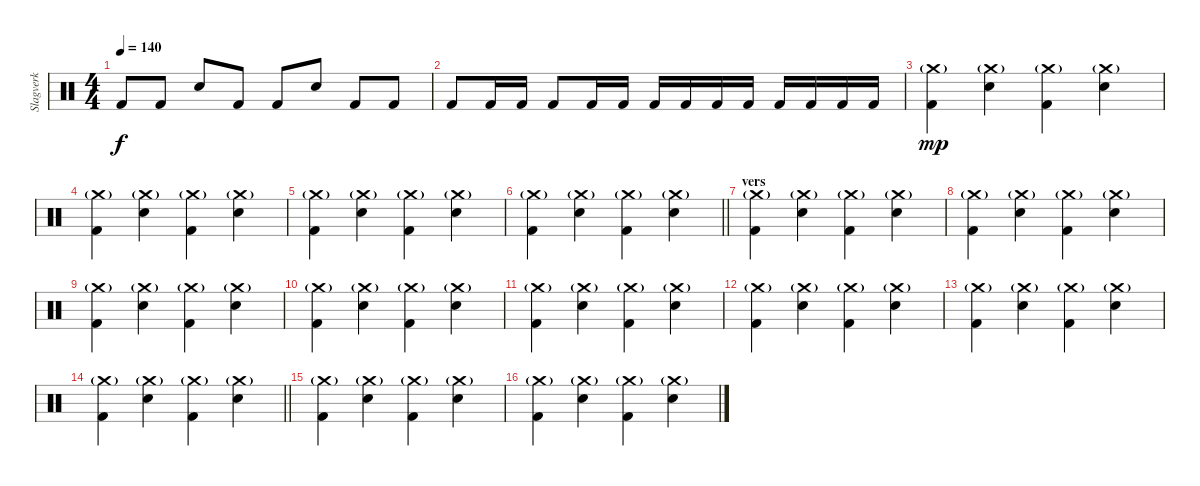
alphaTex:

\track ("Slagverk" "Slagverk") {instrument percussion}
\staff {score}
\articulation defaults
\ts (4 4)
\tempo 140
\clef neutral
\ks c "Kick (hit) 2".8{dy f} "Kick (hit) 2".8 "Snare (hit) 2".8 "Kick (hit) 2".8 "Kick (hit) 2".8 "Snare (hit) 2".8 "Kick (hit) 2".8 "Kick (hit) 2".8
|
"Kick (hit) 2".8 "Kick (hit) 2".16 "Kick (hit) 2".16 "Kick (hit) 2".8 "Kick (hit) 2".16 "Kick (hit) 2".16 "Kick (hit) 2".16 "Kick (hit) 2".16 "Kick (hit) 2".16 "Kick (hit) 2".16 "Kick (hit) 2".16 "Kick (hit) 2".16 "Kick (hit) 2".16 "Kick (hit) 2".16 |
("Kick (hit) 2" "Crash medium (hit)"{g}).4{dy mp} ("Snare (hit) 2" "Crash medium (hit)"{g}).4 ("Kick (hit) 2" "Crash medium (hit)"{g}).4 ("Snare (hit) 2" "Crash medium (hit)"{g}).4 |
("Kick (hit) 2" "Crash medium (hit)"{g}).4 ("Snare (hit) 2" "Crash medium (hit)"{g}).4 ("Kick (hit) 2" "Crash medium (hit)"{g}).4 ("Snare (hit) 2" "Crash medium (hit)"{g}).4 |
("Kick (hit) 2" "Crash medium (hit)"{g}).4 ("Snare (hit) 2" "Crash medium (hit)"{g}).4 ("Kick (hit) 2" "Crash medium (hit)"{g}).4 ("Snare (hit) 2" "Crash medium (hit)"{g}).4 |
\barLineRight lightlight
("Kick (hit) 2" "Crash medium (hit)"{g}).4 ("Snare (hit) 2" "Crash medium (hit)"{g}).4 ("Kick (hit) 2" "Crash medium (hit)"{g}).4 ("Snare (hit) 2" "Crash medium (hit)"{g}).4 |
\section ("" "vers")
("Kick (hit) 2" "Crash medium (hit)"{g}).4 ("Snare (hit) 2" "Crash medium (hit)"{g}).4 ("Kick (hit) 2" "Crash medium (hit)"{g}).4 ("Snare (hit) 2" "Crash medium (hit)"{g}).4 |
("Kick (hit) 2" "Crash medium (hit)"{g}).4 ("Snare (hit) 2" "Crash medium (hit)"{g}).4 ("Kick (hit) 2" "Crash medium (hit)"{g}).4 ("Snare (hit) 2" "Crash medium (hit)"{g}).4 |
("Kick (hit) 2" "Crash medium (hit)"{g}).4 ("Snare (hit) 2" "Crash medium (hit)"{g}).4 ("Kick (hit) 2" "Crash medium (hit)"{g}).4 ("Snare (hit) 2" "Crash medium (hit)"{g}).4 |
("Kick (hit) 2" "Crash medium (hit)"{g}).4 ("Snare (hit) 2" "Crash medium (hit)"{g}).4 ("Kick (hit) 2" "Crash medium (hit)"{g}).4 ("Snare (hit) 2" "Crash medium (hit)"{g}).4 |
("Kick (hit) 2" "Crash medium (hit)"{g}).4 ("Snare (hit) 2" "Crash medium (hit)"{g}).4 ("Kick (hit) 2" "Crash medium (hit)"{g}).4 ("Snare (hit) 2" "Crash medium (hit)"{g}).4 |
("Kick (hit) 2" "Crash medium (hit)"{g}).4 ("Snare (hit) 2" "Crash medium (hit)"{g}).4 ("Kick (hit) 2" "Crash medium (hit)"{g}).4 ("Snare (hit) 2" "Crash medium (hit)"{g}).4 |
("Kick (hit) 2" "Crash medium (hit)"{g}).4 ("Snare (hit) 2" "Crash medium (hit)"{g}).4 ("Kick (hit) 2" "Crash medium (hit)"{g}).4 ("Snare (hit) 2" "Crash medium (hit)"{g}).4 |
\barLineRight lightlight
("Kick (hit) 2" "Crash medium (hit)"{g}).4 ("Snare (hit) 2" "Crash medium (hit)"{g}).4 ("Kick (hit) 2" "Crash medium (hit)"{g}).4 ("Snare (hit) 2" "Crash medium (hit)"{g}).4 |
("Kick (hit) 2" "Crash medium (hit)"{g}).4 ("Snare (hit) 2" "Crash medium (hit)"{g}).4 ("Kick (hit) 2" "Crash medium (hit)"{g}).4 ("Snare (hit) 2" "Crash medium (hit)"{g}).4 |
("Kick (hit) 2" "Crash medium (hit)"{g}).4 ("Snare (hit) 2" "Crash medium (hit)"{g}).4 ("Kick (hit) 2" "Crash medium (hit)"{g}).4 ("Snare (hit) 2" "Crash medium (hit)"{g}).4
